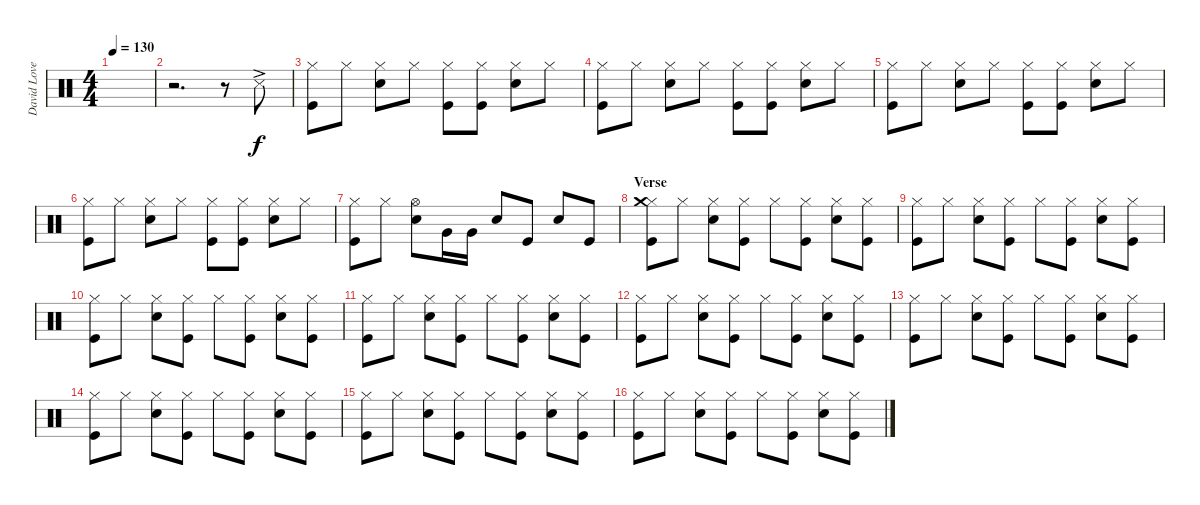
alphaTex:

\track ("David Lovering" "David Love") {instrument percussion}
\staff {score}
\articulation defaults
\ts (4 4)
\tempo 130
\clef neutral
\ks c
|
r.2{d} r.8 "Snare (side stick) 3"{ac}.8 |
("Hi-Hat (closed)" "Kick (hit)").8{dy f} "Hi-Hat (closed)".8 ("Hi-Hat (closed)" "Snare (hit) 2").8 "Hi-Hat (closed)".8 ("Hi-Hat (closed)" "Kick (hit)").8 ("Hi-Hat (closed)" "Kick (hit)").8 ("Hi-Hat (closed)" "Snare (hit) 2").8 "Hi-Hat (closed)".8 |
("Hi-Hat (closed)" "Kick (hit)").8 "Hi-Hat (closed)".8 ("Hi-Hat (closed)" "Snare (hit) 2").8 "Hi-Hat (closed)".8 ("Hi-Hat (closed)" "Kick (hit)").8 ("Hi-Hat (closed)" "Kick (hit)").8 ("Hi-Hat (closed)" "Snare (hit) 2").8 "Hi-Hat (closed)".8 |
("Hi-Hat (closed)" "Kick (hit)").8 "Hi-Hat (closed)".8 ("Hi-Hat (closed)" "Snare (hit) 2").8 "Hi-Hat (closed)".8 ("Hi-Hat (closed)" "Kick (hit)").8 ("Hi-Hat (closed)" "Kick (hit)").8 ("Hi-Hat (closed)" "Snare (hit) 2").8 "Hi-Hat (closed)".8 |
("Hi-Hat (closed)" "Kick (hit)").8 "Hi-Hat (closed)".8 ("Hi-Hat (closed)" "Snare (hit) 2").8 "Hi-Hat (closed)".8 ("Hi-Hat (closed)" "Kick (hit)").8 ("Hi-Hat (closed)" "Kick (hit)").8 ("Hi-Hat (closed)" "Snare (hit) 2").8 "Hi-Hat (closed)".8 |
("Hi-Hat (closed)" "Kick (hit)").8 "Hi-Hat (closed)".8 ("Hi-Hat (open)" "Snare (hit) 2").8 "Very Low Tom (hit)".16 "Very Low Tom (hit)".16 "Snare (hit) 2".8 "Kick (hit)".8 "Snare (hit) 2".8 "Kick (hit)".8 |
\section ("" "Verse")
("Hi-Hat (closed)" "Crash medium (hit)" "Kick (hit)").8 "Hi-Hat (closed)".8 ("Hi-Hat (closed)" "Snare (hit) 2").8 ("Hi-Hat (closed)" "Kick (hit)").8 "Hi-Hat (closed)".8 ("Hi-Hat (closed)" "Kick (hit)").8 ("Hi-Hat (closed)" "Snare (hit) 2").8 ("Hi-Hat (closed)" "Kick (hit)").8 |
("Hi-Hat (closed)" "Kick (hit)").8 "Hi-Hat (closed)".8 ("Hi-Hat (closed)" "Snare (hit) 2").8 ("Hi-Hat (closed)" "Kick (hit)").8 "Hi-Hat (closed)".8 ("Hi-Hat (closed)" "Kick (hit)").8 ("Hi-Hat (closed)" "Snare (hit) 2").8 ("Hi-Hat (closed)" "Kick (hit)").8 |
("Hi-Hat (closed)" "Kick (hit)").8 "Hi-Hat (closed)".8 ("Hi-Hat (closed)" "Snare (hit) 2").8 ("Hi-Hat (closed)" "Kick (hit)").8 "Hi-Hat (closed)".8 ("Hi-Hat (closed)" "Kick (hit)").8 ("Hi-Hat (closed)" "Snare (hit) 2").8 ("Hi-Hat (closed)" "Kick (hit)").8 |
("Hi-Hat (closed)" "Kick (hit)").8 "Hi-Hat (closed)".8 ("Hi-Hat (closed)" "Snare (hit) 2").8 ("Hi-Hat (closed)" "Kick (hit)").8 "Hi-Hat (closed)".8 ("Hi-Hat (closed)" "Kick (hit)").8 ("Hi-Hat (closed)" "Snare (hit) 2").8 ("Hi-Hat (closed)" "Kick (hit)").8 |
("Hi-Hat (closed)" "Kick (hit)").8 "Hi-Hat (closed)".8 ("Hi-Hat (closed)" "Snare (hit) 2").8 ("Hi-Hat (closed)" "Kick (hit)").8 "Hi-Hat (closed)".8 ("Hi-Hat (closed)" "Kick (hit)").8 ("Hi-Hat (closed)" "Snare (hit) 2").8 ("Hi-Hat (closed)" "Kick (hit)").8 |
("Hi-Hat (closed)" "Kick (hit)").8 "Hi-Hat (closed)".8 ("Hi-Hat (closed)" "Snare (hit) 2").8 ("Hi-Hat (closed)" "Kick (hit)").8 "Hi-Hat (closed)".8 ("Hi-Hat (closed)" "Kick (hit)").8 ("Hi-Hat (closed)" "Snare (hit) 2").8 ("Hi-Hat (closed)" "Kick (hit)").8 |
("Hi-Hat (closed)" "Kick (hit)").8 "Hi-Hat (closed)".8 ("Hi-Hat (closed)" "Snare (hit) 2").8 ("Hi-Hat (closed)" "Kick (hit)").8 "Hi-Hat (closed)".8 ("Hi-Hat (closed)" "Kick (hit)").8 ("Hi-Hat (closed)" "Snare (hit) 2").8 ("Hi-Hat (closed)" "Kick (hit)").8 |
("Hi-Hat (closed)" "Kick (hit)").8 "Hi-Hat (closed)".8 ("Hi-Hat (closed)" "Snare (hit) 2").8 ("Hi-Hat (closed)" "Kick (hit)").8 "Hi-Hat (closed)".8 ("Hi-Hat (closed)" "Kick (hit)").8 ("Hi-Hat (closed)" "Snare (hit) 2").8 ("Hi-Hat (closed)" "Kick (hit)").8 |
("Hi-Hat (closed)" "Kick (hit)").8 "Hi-Hat (closed)".8 ("Hi-Hat (closed)" "Snare (hit) 2").8 ("Hi-Hat (closed)" "Kick (hit)").8 "Hi-Hat (closed)".8 ("Hi-Hat (closed)" "Kick (hit)").8 ("Hi-Hat (closed)" "Snare (hit) 2").8 ("Hi-Hat (closed)" "Kick (hit)").8
